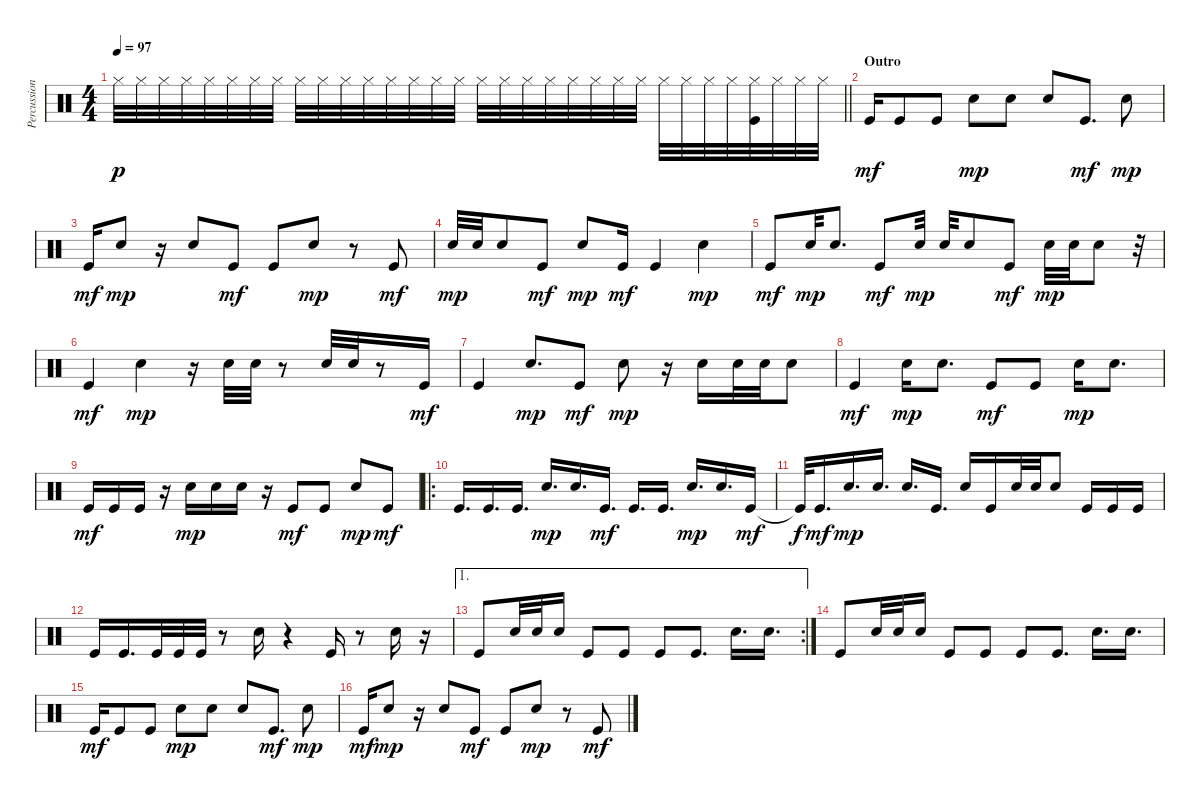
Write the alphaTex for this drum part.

\track ("Percussion" "Percussion") {instrument percussion}
\staff {score}
\articulation defaults
\ts (4 4)
\tempo 97
\clef neutral
\barLineRight lightlight
\ks c "Hi-Hat (closed)".32{dy p} "Hi-Hat (closed)".32 "Hi-Hat (closed)".32 "Hi-Hat (closed)".32 "Hi-Hat (closed)".32 "Hi-Hat (closed)".32 "Hi-Hat (closed)".32 "Hi-Hat (closed)".32 "Hi-Hat (closed)".32 "Hi-Hat (closed)".32 "Hi-Hat (closed)".32 "Hi-Hat (closed)".32 "Hi-Hat (closed)".32 "Hi-Hat (closed)".32 "Hi-Hat (closed)".32 "Hi-Hat (closed)".32 "Hi-Hat (closed)".32 "Hi-Hat (closed)".32 "Hi-Hat (closed)".32 "Hi-Hat (closed)".32 "Hi-Hat (closed)".32 "Hi-Hat (closed)".32 "Hi-Hat (closed)".32 "Hi-Hat (closed)".32 "Hi-Hat (closed)".32 "Hi-Hat (closed)".32 "Hi-Hat (closed)".32 "Hi-Hat (closed)".32
("Hi-Hat (closed)" "Kick (hit)").32 "Hi-Hat (closed)".32 "Hi-Hat (closed)".32 "Hi-Hat (closed)".32 |
\section ("" "Outro")
"Kick (hit)".16{dy mf} "Kick (hit)".8 "Kick (hit)".8 "Electric Snare (hit)".8{dy mp} "Electric Snare (hit)".8 "Electric Snare (hit)".8 "Kick (hit)".8{d dy mf} "Electric Snare (hit)".8{dy mp} |
"Kick (hit)".16{dy mf} "Electric Snare (hit)".8{dy mp} r.16 "Electric Snare (hit)".8 "Kick (hit)".8{dy mf} "Kick (hit)".8 "Electric Snare (hit)".8{dy mp} r.8 "Kick (hit)".8{dy mf} |
"Electric Snare (hit)".32{dy mp} "Electric Snare (hit)".32 "Electric Snare (hit)".8 "Kick (hit)".8{dy mf} "Electric Snare (hit)".8{dy mp} "Kick (hit)".16{dy mf} "Kick (hit)".4 "Electric Snare (hit)".4{dy mp} |
"Kick (hit)".8{dy mf} "Electric Snare (hit)".32{dy mp} "Electric Snare (hit)".8{d} "Kick (hit)".8{dy mf} "Electric Snare (hit)".32{dy mp} "Electric Snare (hit)".32 "Electric Snare (hit)".8 "Kick (hit)".8{dy mf} "Electric Snare (hit)".32{dy mp} "Electric Snare (hit)".32 "Electric Snare (hit)".8 r.32 |
"Kick (hit)".4{dy mf} "Electric Snare (hit)".4{dy mp} r.16 "Electric Snare (hit)".32 "Electric Snare (hit)".32 r.8 "Electric Snare (hit)".32 "Electric Snare (hit)".32 r.8 "Kick (hit)".16{dy mf} |
"Kick (hit)".4 "Electric Snare (hit)".8{d dy mp} "Kick (hit)".8{dy mf} "Electric Snare (hit)".8{dy mp} r.16 "Electric Snare (hit)".16 "Electric Snare (hit)".32 "Electric Snare (hit)".32 "Electric Snare (hit)".8 |
"Kick (hit)".4{dy mf} "Electric Snare (hit)".16{dy mp} "Electric Snare (hit)".8{d} "Kick (hit)".8{dy mf} "Kick (hit)".8 "Electric Snare (hit)".16{dy mp} "Electric Snare (hit)".8{d} |
"Kick (hit)".16{dy mf} "Kick (hit)".16 "Kick (hit)".16 r.16 "Electric Snare (hit)".16{dy mp} "Electric Snare (hit)".16 "Electric Snare (hit)".16 r.16 "Kick (hit)".8{dy mf} "Kick (hit)".8 "Electric Snare (hit)".8{dy mp} "Kick (hit)".8{dy mf} |
\ro "Kick (hit)".16{d} "Kick (hit)".16{d} "Kick (hit)".16{d} "Electric Snare (hit)".16{d dy mp} "Electric Snare (hit)".16{d} "Kick (hit)".16{d dy mf} "Kick (hit)".16{d} "Kick (hit)".16{d} "Electric Snare (hit)".16{d dy mp} "Electric Snare (hit)".16{d} "Kick (hit)".16{dy mf}
|
"Kick (hit)"{t}.32{dy f} "Kick (hit)".16{d dy mf} "Electric Snare (hit)".16{d dy mp} "Electric Snare (hit)".16{d} "Electric Snare (hit)".16{d} "Kick (hit)".16{d} "Electric Snare (hit)".16 "Kick (hit)".16 "Electric Snare (hit)".32 "Electric Snare (hit)".32 "Electric Snare (hit)".8 "Kick (hit)".16 "Kick (hit)".16 "Kick (hit)".16 |
"Kick (hit)".16 "Kick (hit)".16{d} "Kick (hit)".32 "Kick (hit)".32 "Kick (hit)".32 r.8 "Electric Snare (hit)".16 r.4 "Kick (hit)".16 r.8 "Electric Snare (hit)".16 r.16 |
\ae 1
\rc 2 "Kick (hit)".8 "Electric Snare (hit)".32 "Electric Snare (hit)".32 "Electric Snare (hit)".16 "Kick (hit)".8 "Kick (hit)".8 "Kick (hit)".8 "Kick (hit)".8{d} "Electric Snare (hit)".16{d} "Electric Snare (hit)".16{d}
|
"Kick (hit)".8 "Electric Snare (hit)".32 "Electric Snare (hit)".32 "Electric Snare (hit)".16 "Kick (hit)".8 "Kick (hit)".8 "Kick (hit)".8 "Kick (hit)".8{d} "Electric Snare (hit)".16{d} "Electric Snare (hit)".16{d} |
"Kick (hit)".16{dy mf} "Kick (hit)".8 "Kick (hit)".8 "Electric Snare (hit)".8{dy mp} "Electric Snare (hit)".8 "Electric Snare (hit)".8 "Kick (hit)".8{d dy mf} "Electric Snare (hit)".8{dy mp} |
"Kick (hit)".16{dy mf} "Electric Snare (hit)".8{dy mp} r.16 "Electric Snare (hit)".8 "Kick (hit)".8{dy mf} "Kick (hit)".8 "Electric Snare (hit)".8{dy mp} r.8 "Kick (hit)".8{dy mf}
